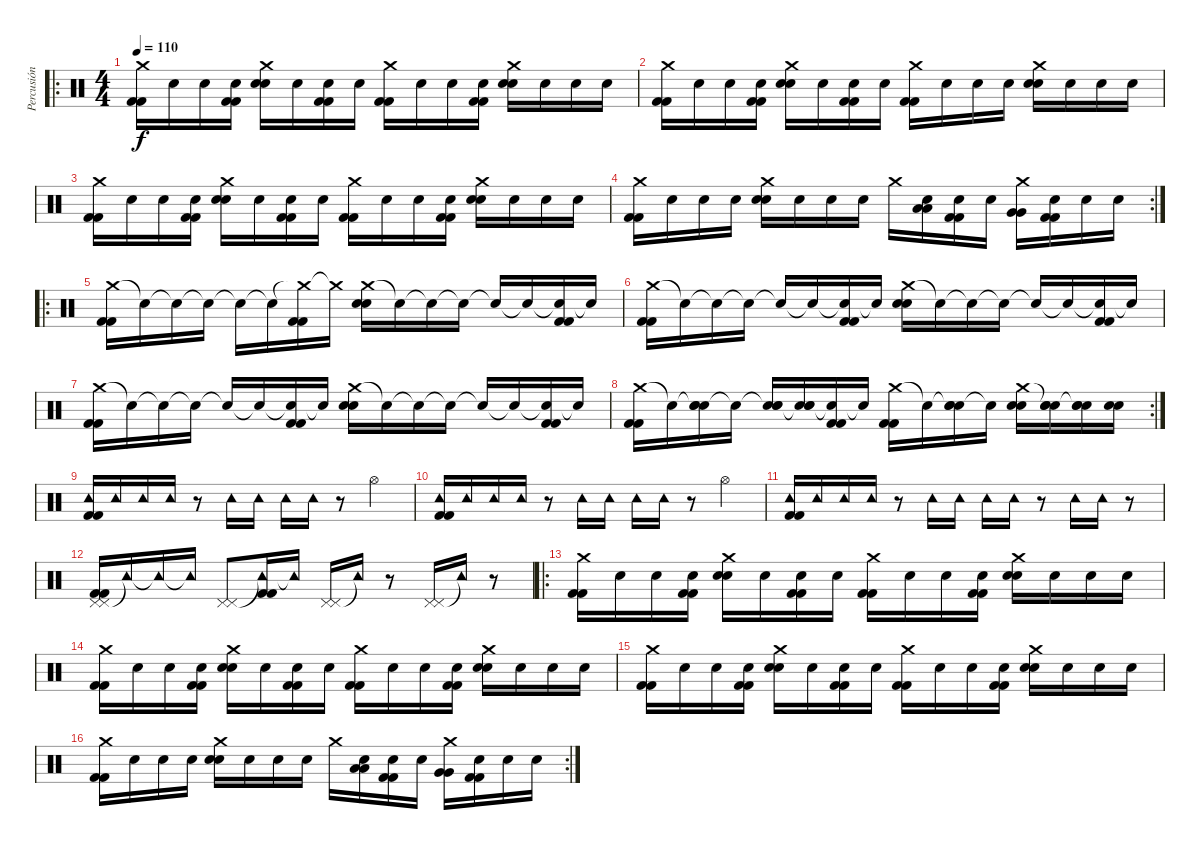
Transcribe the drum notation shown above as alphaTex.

\track ("Percusión" "Percusión") {instrument percussion}
\staff {score}
\articulation defaults
\ro
\ts (4 4)
\tempo 110
\clef neutral
\ks c
("Crash medium (hit)" "Kick (hit) 2" "Kick (hit) 2").16{dy f} "Snare (hit)".16 "Snare (hit)".16 ("Snare (hit)" "Kick (hit) 2" "Kick (hit) 2").16 ("Crash medium (hit)" "Electric Snare (hit)" "Electric Snare (hit)").16 "Snare (hit)".16 ("Snare (hit)" "Kick (hit) 2" "Kick (hit) 2").16 "Snare (hit)".16 ("Crash medium (hit)" "Kick (hit) 2" "Kick (hit) 2").16 "Snare (hit)".16 "Snare (hit)".16 ("Snare (hit)" "Kick (hit) 2" "Kick (hit) 2").16 ("Crash medium (hit)" "Electric Snare (hit)" "Electric Snare (hit)").16 "Snare (hit)".16 "Snare (hit)".16 "Snare (hit)".16 |
("Crash medium (hit)" "Kick (hit) 2" "Kick (hit) 2").16 "Snare (hit)".16 "Snare (hit)".16 ("Snare (hit)" "Kick (hit) 2" "Kick (hit) 2").16 ("Crash medium (hit)" "Electric Snare (hit)" "Electric Snare (hit)").16 "Snare (hit)".16 ("Snare (hit)" "Kick (hit) 2" "Kick (hit) 2").16 "Snare (hit)".16 ("Crash medium (hit)" "Kick (hit) 2" "Kick (hit) 2").16 "Snare (hit)".16 "Snare (hit)".16 "Snare (hit)".16 ("Crash medium (hit)" "Electric Snare (hit)" "Electric Snare (hit)").16 "Snare (hit)".16 "Snare (hit)".16 "Snare (hit)".16 |
("Crash medium (hit)" "Kick (hit) 2" "Kick (hit) 2").16 "Snare (hit)".16 "Snare (hit)".16 ("Snare (hit)" "Kick (hit) 2" "Kick (hit) 2").16 ("Crash medium (hit)" "Electric Snare (hit)" "Electric Snare (hit)").16 "Snare (hit)".16 ("Snare (hit)" "Kick (hit) 2" "Kick (hit) 2").16 "Snare (hit)".16 ("Crash medium (hit)" "Kick (hit) 2" "Kick (hit) 2").16 "Snare (hit)".16 "Snare (hit)".16 ("Snare (hit)" "Kick (hit) 2" "Kick (hit) 2").16 ("Crash medium (hit)" "Electric Snare (hit)" "Electric Snare (hit)").16 "Snare (hit)".16 "Snare (hit)".16 "Snare (hit)".16 |
\rc 2
("Crash medium (hit)" "Kick (hit) 2" "Kick (hit) 2").16 "Snare (hit)".16 "Snare (hit)".16 "Snare (hit)".16 ("Crash medium (hit)" "Electric Snare (hit)" "Electric Snare (hit)").16 "Snare (hit)".16 "Snare (hit)".16 "Snare (hit)".16 "Crash medium (hit)".16 ("Snare (hit)" "Low Tom (hit)" "Low Tom (hit)").16 ("Snare (hit)" "Kick (hit) 2" "Kick (hit) 2").16 "Snare (hit)".16 ("Crash medium (hit)" "Very Low Tom (hit)" "Very Low Tom (hit)").16 ("Snare (hit)" "Kick (hit) 2" "Kick (hit) 2").16 "Snare (hit)".16 "Snare (hit)".16 |
\ro
("Crash medium (hit)" "Kick (hit) 2" "Kick (hit) 2").16 "Snare (hit)"{t}.16 "Snare (hit)"{t}.16 "Snare (hit)"{t}.16 "Snare (hit)"{t}.16 "Snare (hit)"{t}.16 ("Crash medium (hit)"{t} "Kick (hit) 2" "Kick (hit) 2").16 "Crash medium (hit)"{t}.16 ("Crash medium (hit)" "Electric Snare (hit)" "Electric Snare (hit)").16 "Snare (hit)"{t}.16 "Snare (hit)"{t}.16 "Snare (hit)"{t}.16 "Snare (hit)"{t}.16 "Snare (hit)"{t}.16 ("Snare (hit)"{t} "Kick (hit) 2" "Kick (hit) 2").16 "Snare (hit)"{t}.16 |
("Crash medium (hit)" "Kick (hit) 2" "Kick (hit) 2").16 "Snare (hit)"{t}.16 "Snare (hit)"{t}.16 "Snare (hit)"{t}.16 "Snare (hit)"{t}.16 "Snare (hit)"{t}.16 ("Snare (hit)"{t} "Kick (hit) 2" "Kick (hit) 2").16 "Snare (hit)"{t}.16 ("Crash medium (hit)" "Electric Snare (hit)" "Electric Snare (hit)").16 "Snare (hit)"{t}.16 "Snare (hit)"{t}.16 "Snare (hit)"{t}.16 "Snare (hit)"{t}.16 "Snare (hit)"{t}.16 ("Snare (hit)"{t} "Kick (hit) 2" "Kick (hit) 2").16 "Snare (hit)"{t}.16 |
("Crash medium (hit)" "Kick (hit) 2" "Kick (hit) 2").16 "Snare (hit)"{t}.16 "Snare (hit)"{t}.16 "Snare (hit)"{t}.16 "Snare (hit)"{t}.16 "Snare (hit)"{t}.16 ("Snare (hit)"{t} "Kick (hit) 2" "Kick (hit) 2").16 "Snare (hit)"{t}.16 ("Crash medium (hit)" "Electric Snare (hit)" "Electric Snare (hit)").16 "Snare (hit)"{t}.16 "Snare (hit)"{t}.16 "Snare (hit)"{t}.16 "Snare (hit)"{t}.16 "Snare (hit)"{t}.16 ("Snare (hit)"{t} "Kick (hit) 2" "Kick (hit) 2").16 "Snare (hit)"{t}.16 |
\rc 2
("Crash medium (hit)" "Kick (hit) 2" "Kick (hit) 2").16 "Snare (hit)"{t}.16 ("Snare (hit)"{t} "Electric Snare (hit)" "Electric Snare (hit)").16 "Snare (hit)"{t}.16 ("Snare (hit)"{t} "Electric Snare (hit)" "Electric Snare (hit)").16 ("Snare (hit)"{t} "Electric Snare (hit)" "Electric Snare (hit)").16 ("Snare (hit)"{t} "Kick (hit) 2" "Kick (hit) 2").16 "Snare (hit)"{t}.16 ("Crash medium (hit)" "Kick (hit) 2" "Kick (hit) 2").16 "Snare (hit)"{t}.16 ("Snare (hit)"{t} "Electric Snare (hit)" "Electric Snare (hit)").16 "Snare (hit)"{t}.16 ("Crash medium (hit)" "Electric Snare (hit)" "Electric Snare (hit)").16 ("Snare (hit)"{t} "Electric Snare (hit)" "Electric Snare (hit)").16 ("Snare (hit)"{t} "Electric Snare (hit)" "Electric Snare (hit)").16 ("Electric Snare (hit)" "Electric Snare (hit)").16 |
("Tambourine (hit)" "Kick (hit) 2" "Kick (hit) 2").16 "Tambourine (hit)".16 "Tambourine (hit)".16 "Tambourine (hit)".16 r.8 "Tambourine (hit)".16 "Tambourine (hit)".16 "Tambourine (hit)".16 "Tambourine (hit)".16 r.8 "Hi-Hat (open)".4 |
("Tambourine (hit)" "Kick (hit) 2" "Kick (hit) 2").16 "Tambourine (hit)".16 "Tambourine (hit)".16 "Tambourine (hit)".16 r.8 "Tambourine (hit)".16 "Tambourine (hit)".16 "Tambourine (hit)".16 "Tambourine (hit)".16 r.8 "Hi-Hat (open)".4 |
("Tambourine (hit)" "Kick (hit) 2" "Kick (hit) 2").16 "Tambourine (hit)".16 "Tambourine (hit)".16 "Tambourine (hit)".16 r.8 "Tambourine (hit)".16 "Tambourine (hit)".16 "Tambourine (hit)".16 "Tambourine (hit)".16 r.8 "Tambourine (hit)".16 "Tambourine (hit)".16 r.8 |
("Pedal Hi-Hat (hit)" "Pedal Hi-Hat (hit)" "Kick (hit) 2" "Kick (hit) 2").16 "Tambourine (hit)"{t}.16 "Tambourine (hit)"{t}.16 "Tambourine (hit)"{t}.16 ("Pedal Hi-Hat (hit)" "Pedal Hi-Hat (hit)").8 ("Tambourine (hit)"{t} "Kick (hit) 2" "Kick (hit) 2").16 "Tambourine (hit)"{t}.16 ("Pedal Hi-Hat (hit)" "Pedal Hi-Hat (hit)").16 "Tambourine (hit)"{t}.16 r.8 ("Pedal Hi-Hat (hit)" "Pedal Hi-Hat (hit)").16 "Tambourine (hit)"{t}.16 r.8 |
\ro
("Crash medium (hit)" "Kick (hit) 2" "Kick (hit) 2").16 "Snare (hit)".16 "Snare (hit)".16 ("Snare (hit)" "Kick (hit) 2" "Kick (hit) 2").16 ("Crash medium (hit)" "Electric Snare (hit)" "Electric Snare (hit)").16 "Snare (hit)".16 ("Snare (hit)" "Kick (hit) 2" "Kick (hit) 2").16 "Snare (hit)".16 ("Crash medium (hit)" "Kick (hit) 2" "Kick (hit) 2").16 "Snare (hit)".16 "Snare (hit)".16 ("Snare (hit)" "Kick (hit) 2" "Kick (hit) 2").16 ("Crash medium (hit)" "Electric Snare (hit)" "Electric Snare (hit)").16 "Snare (hit)".16 "Snare (hit)".16 "Snare (hit)".16 |
("Crash medium (hit)" "Kick (hit) 2" "Kick (hit) 2").16 "Snare (hit)".16 "Snare (hit)".16 ("Snare (hit)" "Kick (hit) 2" "Kick (hit) 2").16 ("Crash medium (hit)" "Electric Snare (hit)" "Electric Snare (hit)").16 "Snare (hit)".16 ("Snare (hit)" "Kick (hit) 2" "Kick (hit) 2").16 "Snare (hit)".16 ("Crash medium (hit)" "Kick (hit) 2" "Kick (hit) 2").16 "Snare (hit)".16 "Snare (hit)".16 ("Snare (hit)" "Kick (hit) 2" "Kick (hit) 2").16 ("Crash medium (hit)" "Electric Snare (hit)" "Electric Snare (hit)").16 "Snare (hit)".16 "Snare (hit)".16 "Snare (hit)".16 |
("Crash medium (hit)" "Kick (hit) 2" "Kick (hit) 2").16 "Snare (hit)".16 "Snare (hit)".16 ("Snare (hit)" "Kick (hit) 2" "Kick (hit) 2").16 ("Crash medium (hit)" "Electric Snare (hit)" "Electric Snare (hit)").16 "Snare (hit)".16 ("Snare (hit)" "Kick (hit) 2" "Kick (hit) 2").16 "Snare (hit)".16 ("Crash medium (hit)" "Kick (hit) 2" "Kick (hit) 2").16 "Snare (hit)".16 "Snare (hit)".16 ("Snare (hit)" "Kick (hit) 2" "Kick (hit) 2").16 ("Crash medium (hit)" "Electric Snare (hit)" "Electric Snare (hit)").16 "Snare (hit)".16 "Snare (hit)".16 "Snare (hit)".16 |
\rc 2
("Crash medium (hit)" "Kick (hit) 2" "Kick (hit) 2").16 "Snare (hit)".16 "Snare (hit)".16 "Snare (hit)".16 ("Crash medium (hit)" "Electric Snare (hit)" "Electric Snare (hit)").16 "Snare (hit)".16 "Snare (hit)".16 "Snare (hit)".16 "Crash medium (hit)".16 ("Snare (hit)" "Low Tom (hit)" "Low Tom (hit)").16 ("Snare (hit)" "Kick (hit) 2" "Kick (hit) 2").16 "Snare (hit)".16 ("Crash medium (hit)" "Very Low Tom (hit)" "Very Low Tom (hit)").16 ("Snare (hit)" "Kick (hit) 2" "Kick (hit) 2").16 "Snare (hit)".16 "Snare (hit)".16
